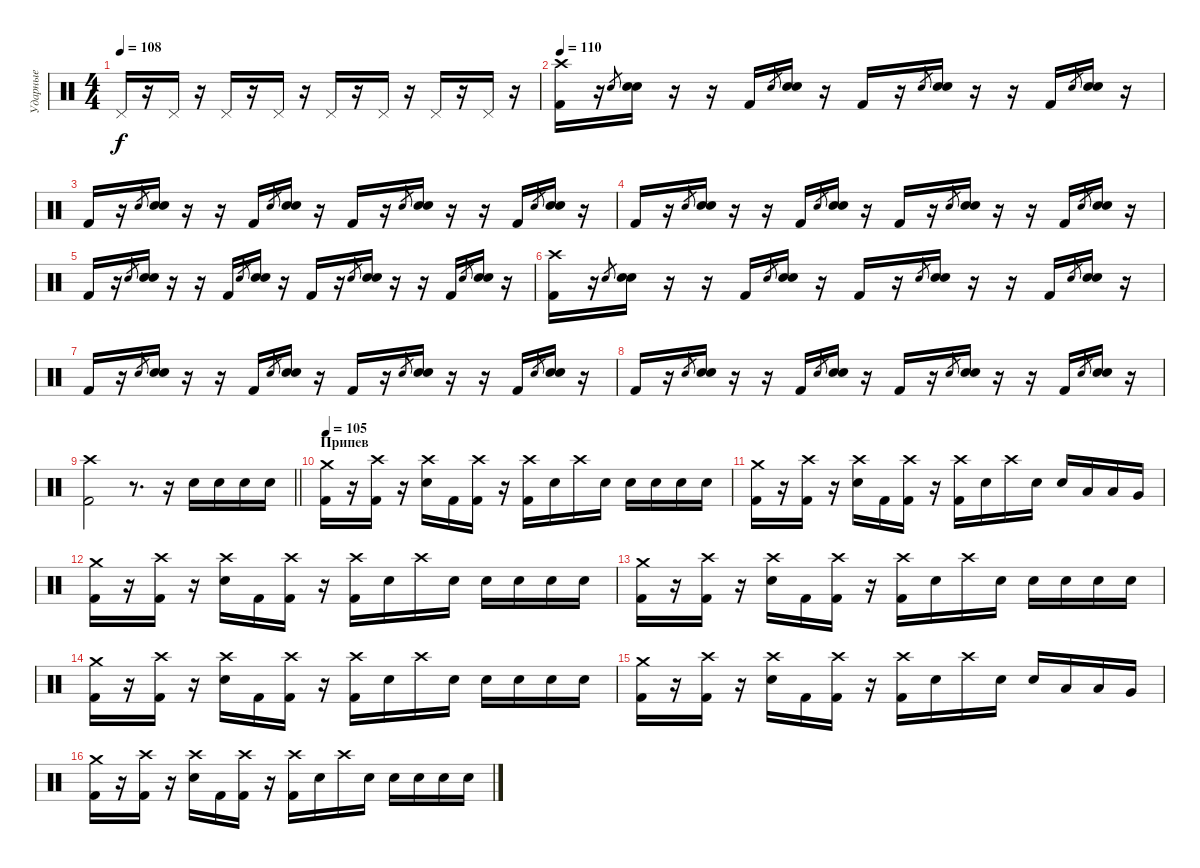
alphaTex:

\track ("Ударные" "Ударные") {instrument percussion}
\staff {score}
\articulation defaults
\ts (4 4)
\tempo 108
\clef neutral
\ks c "Pedal Hi-Hat (hit)".16{dy f}
r.16 "Pedal Hi-Hat (hit)".16 r.16 "Pedal Hi-Hat (hit)".16 r.16 "Pedal Hi-Hat (hit)".16 r.16 "Pedal Hi-Hat (hit)".16 r.16 "Pedal Hi-Hat (hit)".16 r.16 "Pedal Hi-Hat (hit)".16 r.16 "Pedal Hi-Hat (hit)".16 r.16 |
\tempo 110
("Crash high (hit)" "Kick (hit) 2").16 r.16 "Electric Snare (hit)".8{gr} ("Electric Snare (hit)" "Electric Snare (hit)").16 r.16 r.16 "Kick (hit) 2".16 "Electric Snare (hit)".8{gr} ("Electric Snare (hit)" "Electric Snare (hit)").16 r.16 "Kick (hit) 2".16 r.16 "Electric Snare (hit)".8{gr} ("Electric Snare (hit)" "Electric Snare (hit)").16 r.16 r.16 "Kick (hit) 2".16 "Electric Snare (hit)".8{gr} ("Electric Snare (hit)" "Electric Snare (hit)").16 r.16 |
"Kick (hit) 2".16 r.16 "Electric Snare (hit)".8{gr} ("Electric Snare (hit)" "Electric Snare (hit)").16 r.16 r.16 "Kick (hit) 2".16 "Electric Snare (hit)".8{gr} ("Electric Snare (hit)" "Electric Snare (hit)").16 r.16 "Kick (hit) 2".16 r.16 "Electric Snare (hit)".8{gr} ("Electric Snare (hit)" "Electric Snare (hit)").16 r.16 r.16 "Kick (hit) 2".16 "Electric Snare (hit)".8{gr} ("Electric Snare (hit)" "Electric Snare (hit)").16 r.16 |
"Kick (hit) 2".16 r.16 "Electric Snare (hit)".8{gr} ("Electric Snare (hit)" "Electric Snare (hit)").16 r.16 r.16 "Kick (hit) 2".16 "Electric Snare (hit)".8{gr} ("Electric Snare (hit)" "Electric Snare (hit)").16 r.16 "Kick (hit) 2".16 r.16 "Electric Snare (hit)".8{gr} ("Electric Snare (hit)" "Electric Snare (hit)").16 r.16 r.16 "Kick (hit) 2".16 "Electric Snare (hit)".8{gr} ("Electric Snare (hit)" "Electric Snare (hit)").16 r.16 |
"Kick (hit) 2".16 r.16 "Electric Snare (hit)".8{gr} ("Electric Snare (hit)" "Electric Snare (hit)").16 r.16 r.16 "Kick (hit) 2".16 "Electric Snare (hit)".8{gr} ("Electric Snare (hit)" "Electric Snare (hit)").16 r.16 "Kick (hit) 2".16 r.16 "Electric Snare (hit)".8{gr} ("Electric Snare (hit)" "Electric Snare (hit)").16 r.16 r.16 "Kick (hit) 2".16 "Electric Snare (hit)".8{gr} ("Electric Snare (hit)" "Electric Snare (hit)").16 r.16 |
("Crash high (hit)" "Kick (hit) 2").16 r.16 "Electric Snare (hit)".8{gr} ("Electric Snare (hit)" "Electric Snare (hit)").16 r.16 r.16 "Kick (hit) 2".16 "Electric Snare (hit)".8{gr} ("Electric Snare (hit)" "Electric Snare (hit)").16 r.16 "Kick (hit) 2".16 r.16 "Electric Snare (hit)".8{gr} ("Electric Snare (hit)" "Electric Snare (hit)").16 r.16 r.16 "Kick (hit) 2".16 "Electric Snare (hit)".8{gr} ("Electric Snare (hit)" "Electric Snare (hit)").16 r.16 |
"Kick (hit) 2".16 r.16 "Electric Snare (hit)".8{gr} ("Electric Snare (hit)" "Electric Snare (hit)").16 r.16 r.16 "Kick (hit) 2".16 "Electric Snare (hit)".8{gr} ("Electric Snare (hit)" "Electric Snare (hit)").16 r.16 "Kick (hit) 2".16 r.16 "Electric Snare (hit)".8{gr} ("Electric Snare (hit)" "Electric Snare (hit)").16 r.16 r.16 "Kick (hit) 2".16 "Electric Snare (hit)".8{gr} ("Electric Snare (hit)" "Electric Snare (hit)").16 r.16 |
"Kick (hit) 2".16 r.16 "Electric Snare (hit)".8{gr} ("Electric Snare (hit)" "Electric Snare (hit)").16 r.16 r.16 "Kick (hit) 2".16 "Electric Snare (hit)".8{gr} ("Electric Snare (hit)" "Electric Snare (hit)").16 r.16 "Kick (hit) 2".16 r.16 "Electric Snare (hit)".8{gr} ("Electric Snare (hit)" "Electric Snare (hit)").16 r.16 r.16 "Kick (hit) 2".16 "Electric Snare (hit)".8{gr} ("Electric Snare (hit)" "Electric Snare (hit)").16 r.16 |
\barLineRight lightlight
("Crash high (hit)" "Kick (hit) 2").2 r.8{d} r.16 "Electric Snare (hit)".16 "Electric Snare (hit)".16 "Electric Snare (hit)".16 "Electric Snare (hit)".16 |
\section ("" "Припев")
\tempo 105
("Crash medium (hit)" "Kick (hit) 2").16 r.16 ("Crash high (hit)" "Kick (hit) 2").16 r.16 ("Crash high (hit)" "Electric Snare (hit)").16 "Kick (hit) 2".16 ("Crash high (hit)" "Kick (hit) 2").16 r.16 ("Crash high (hit)" "Kick (hit) 2").16 "Electric Snare (hit)".16 "Crash high (hit)".16 "Electric Snare (hit)".16 "Electric Snare (hit)".16 "Electric Snare (hit)".16 "Electric Snare (hit)".16 "Electric Snare (hit)".16 |
("Crash medium (hit)" "Kick (hit) 2").16 r.16 ("Crash high (hit)" "Kick (hit) 2").16 r.16 ("Crash high (hit)" "Electric Snare (hit)").16 "Kick (hit) 2".16 ("Crash high (hit)" "Kick (hit) 2").16 r.16 ("Crash high (hit)" "Kick (hit) 2").16 "Electric Snare (hit)".16 "Crash high (hit)".16 "Electric Snare (hit)".16 "Electric Snare (hit)".16 "Low Tom (hit)".16 "Low Tom (hit)".16 "Very Low Tom (hit)".16 |
("Crash medium (hit)" "Kick (hit) 2").16 r.16 ("Crash high (hit)" "Kick (hit) 2").16 r.16 ("Crash high (hit)" "Electric Snare (hit)").16 "Kick (hit) 2".16 ("Crash high (hit)" "Kick (hit) 2").16 r.16 ("Crash high (hit)" "Kick (hit) 2").16 "Electric Snare (hit)".16 "Crash high (hit)".16 "Electric Snare (hit)".16 "Electric Snare (hit)".16 "Electric Snare (hit)".16 "Electric Snare (hit)".16 "Electric Snare (hit)".16 |
("Crash medium (hit)" "Kick (hit) 2").16 r.16 ("Crash high (hit)" "Kick (hit) 2").16 r.16 ("Crash high (hit)" "Electric Snare (hit)").16 "Kick (hit) 2".16 ("Crash high (hit)" "Kick (hit) 2").16 r.16 ("Crash high (hit)" "Kick (hit) 2").16 "Electric Snare (hit)".16 "Crash high (hit)".16 "Electric Snare (hit)".16 "Electric Snare (hit)".16 "Electric Snare (hit)".16 "Electric Snare (hit)".16 "Electric Snare (hit)".16 |
("Crash medium (hit)" "Kick (hit) 2").16 r.16 ("Crash high (hit)" "Kick (hit) 2").16 r.16 ("Crash high (hit)" "Electric Snare (hit)").16 "Kick (hit) 2".16 ("Crash high (hit)" "Kick (hit) 2").16 r.16 ("Crash high (hit)" "Kick (hit) 2").16 "Electric Snare (hit)".16 "Crash high (hit)".16 "Electric Snare (hit)".16 "Electric Snare (hit)".16 "Electric Snare (hit)".16 "Electric Snare (hit)".16 "Electric Snare (hit)".16 |
("Crash medium (hit)" "Kick (hit) 2").16 r.16 ("Crash high (hit)" "Kick (hit) 2").16 r.16 ("Crash high (hit)" "Electric Snare (hit)").16 "Kick (hit) 2".16 ("Crash high (hit)" "Kick (hit) 2").16 r.16 ("Crash high (hit)" "Kick (hit) 2").16 "Electric Snare (hit)".16 "Crash high (hit)".16 "Electric Snare (hit)".16 "Electric Snare (hit)".16 "Low Tom (hit)".16 "Low Tom (hit)".16 "Very Low Tom (hit)".16 |
("Crash medium (hit)" "Kick (hit) 2").16 r.16 ("Crash high (hit)" "Kick (hit) 2").16 r.16 ("Crash high (hit)" "Electric Snare (hit)").16 "Kick (hit) 2".16 ("Crash high (hit)" "Kick (hit) 2").16 r.16 ("Crash high (hit)" "Kick (hit) 2").16 "Electric Snare (hit)".16 "Crash high (hit)".16 "Electric Snare (hit)".16 "Electric Snare (hit)".16 "Electric Snare (hit)".16 "Electric Snare (hit)".16 "Electric Snare (hit)".16
